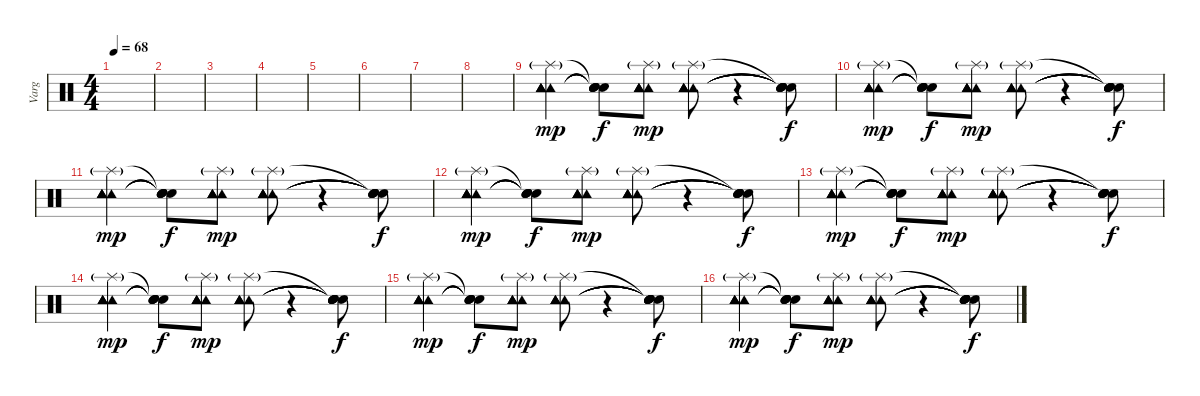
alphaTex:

\track ("Varg" "Varg") {instrument percussion}
\staff {score}
\articulation defaults
\ts (4 4)
\tempo 68
\clef neutral
\ks c
|
|
|
|
|
|
|
|
("Splash (hit)"{g} "Tambourine (hit)" "Tambourine (hit)" "Tambourine (hit)" "Tambourine (hit)" "Tambourine (hit)").4{dy mp} ("Snare (hit)"{t} "Snare (hit)"{t} "Snare (hit)"{t} "Snare (hit)"{t} "Snare (hit)"{t}).8{dy f} ("Splash (hit)"{g} "Tambourine (hit)" "Tambourine (hit)" "Tambourine (hit)" "Tambourine (hit)" "Tambourine (hit)").8{dy mp} ("Splash (hit)"{g} "Tambourine (hit)" "Tambourine (hit)" "Tambourine (hit)" "Tambourine (hit)" "Tambourine (hit)").8 r.4 ("Snare (hit)"{t} "Snare (hit)"{t} "Snare (hit)"{t} "Snare (hit)"{t} "Snare (hit)"{t} "Snare (hit)"{t}).8{dy f} |
("Splash (hit)"{g} "Tambourine (hit)" "Tambourine (hit)" "Tambourine (hit)" "Tambourine (hit)" "Tambourine (hit)").4{dy mp} ("Snare (hit)"{t} "Snare (hit)"{t} "Snare (hit)"{t} "Snare (hit)"{t} "Snare (hit)"{t}).8{dy f} ("Splash (hit)"{g} "Tambourine (hit)" "Tambourine (hit)" "Tambourine (hit)" "Tambourine (hit)" "Tambourine (hit)").8{dy mp} ("Splash (hit)"{g} "Tambourine (hit)" "Tambourine (hit)" "Tambourine (hit)" "Tambourine (hit)" "Tambourine (hit)").8 r.4 ("Snare (hit)"{t} "Snare (hit)"{t} "Snare (hit)"{t} "Snare (hit)"{t} "Snare (hit)"{t} "Snare (hit)"{t}).8{dy f} |
("Splash (hit)"{g} "Tambourine (hit)" "Tambourine (hit)" "Tambourine (hit)" "Tambourine (hit)" "Tambourine (hit)").4{dy mp} ("Snare (hit)"{t} "Snare (hit)"{t} "Snare (hit)"{t} "Snare (hit)"{t} "Snare (hit)"{t}).8{dy f} ("Splash (hit)"{g} "Tambourine (hit)" "Tambourine (hit)" "Tambourine (hit)" "Tambourine (hit)" "Tambourine (hit)").8{dy mp} ("Splash (hit)"{g} "Tambourine (hit)" "Tambourine (hit)" "Tambourine (hit)" "Tambourine (hit)" "Tambourine (hit)").8 r.4 ("Snare (hit)"{t} "Snare (hit)"{t} "Snare (hit)"{t} "Snare (hit)"{t} "Snare (hit)"{t} "Snare (hit)"{t}).8{dy f} |
("Splash (hit)"{g} "Tambourine (hit)" "Tambourine (hit)" "Tambourine (hit)" "Tambourine (hit)" "Tambourine (hit)").4{dy mp} ("Snare (hit)"{t} "Snare (hit)"{t} "Snare (hit)"{t} "Snare (hit)"{t} "Snare (hit)"{t}).8{dy f} ("Splash (hit)"{g} "Tambourine (hit)" "Tambourine (hit)" "Tambourine (hit)" "Tambourine (hit)" "Tambourine (hit)").8{dy mp} ("Splash (hit)"{g} "Tambourine (hit)" "Tambourine (hit)" "Tambourine (hit)" "Tambourine (hit)" "Tambourine (hit)").8 r.4 ("Snare (hit)"{t} "Snare (hit)"{t} "Snare (hit)"{t} "Snare (hit)"{t} "Snare (hit)"{t} "Snare (hit)"{t}).8{dy f} |
("Splash (hit)"{g} "Tambourine (hit)" "Tambourine (hit)" "Tambourine (hit)" "Tambourine (hit)" "Tambourine (hit)").4{dy mp} ("Snare (hit)"{t} "Snare (hit)"{t} "Snare (hit)"{t} "Snare (hit)"{t} "Snare (hit)"{t}).8{dy f} ("Splash (hit)"{g} "Tambourine (hit)" "Tambourine (hit)" "Tambourine (hit)" "Tambourine (hit)" "Tambourine (hit)").8{dy mp} ("Splash (hit)"{g} "Tambourine (hit)" "Tambourine (hit)" "Tambourine (hit)" "Tambourine (hit)" "Tambourine (hit)").8 r.4 ("Snare (hit)"{t} "Snare (hit)"{t} "Snare (hit)"{t} "Snare (hit)"{t} "Snare (hit)"{t} "Snare (hit)"{t}).8{dy f} |
("Splash (hit)"{g} "Tambourine (hit)" "Tambourine (hit)" "Tambourine (hit)" "Tambourine (hit)" "Tambourine (hit)").4{dy mp} ("Snare (hit)"{t} "Snare (hit)"{t} "Snare (hit)"{t} "Snare (hit)"{t} "Snare (hit)"{t}).8{dy f} ("Splash (hit)"{g} "Tambourine (hit)" "Tambourine (hit)" "Tambourine (hit)" "Tambourine (hit)" "Tambourine (hit)").8{dy mp} ("Splash (hit)"{g} "Tambourine (hit)" "Tambourine (hit)" "Tambourine (hit)" "Tambourine (hit)" "Tambourine (hit)").8 r.4 ("Snare (hit)"{t} "Snare (hit)"{t} "Snare (hit)"{t} "Snare (hit)"{t} "Snare (hit)"{t} "Snare (hit)"{t}).8{dy f} |
("Splash (hit)"{g} "Tambourine (hit)" "Tambourine (hit)" "Tambourine (hit)" "Tambourine (hit)" "Tambourine (hit)").4{dy mp} ("Snare (hit)"{t} "Snare (hit)"{t} "Snare (hit)"{t} "Snare (hit)"{t} "Snare (hit)"{t}).8{dy f} ("Splash (hit)"{g} "Tambourine (hit)" "Tambourine (hit)" "Tambourine (hit)" "Tambourine (hit)" "Tambourine (hit)").8{dy mp} ("Splash (hit)"{g} "Tambourine (hit)" "Tambourine (hit)" "Tambourine (hit)" "Tambourine (hit)" "Tambourine (hit)").8 r.4 ("Snare (hit)"{t} "Snare (hit)"{t} "Snare (hit)"{t} "Snare (hit)"{t} "Snare (hit)"{t} "Snare (hit)"{t}).8{dy f} |
("Splash (hit)"{g} "Tambourine (hit)" "Tambourine (hit)" "Tambourine (hit)" "Tambourine (hit)" "Tambourine (hit)").4{dy mp} ("Snare (hit)"{t} "Snare (hit)"{t} "Snare (hit)"{t} "Snare (hit)"{t} "Snare (hit)"{t}).8{dy f} ("Splash (hit)"{g} "Tambourine (hit)" "Tambourine (hit)" "Tambourine (hit)" "Tambourine (hit)" "Tambourine (hit)").8{dy mp} ("Splash (hit)"{g} "Tambourine (hit)" "Tambourine (hit)" "Tambourine (hit)" "Tambourine (hit)" "Tambourine (hit)").8 r.4 ("Snare (hit)"{t} "Snare (hit)"{t} "Snare (hit)"{t} "Snare (hit)"{t} "Snare (hit)"{t} "Snare (hit)"{t}).8{dy f}
